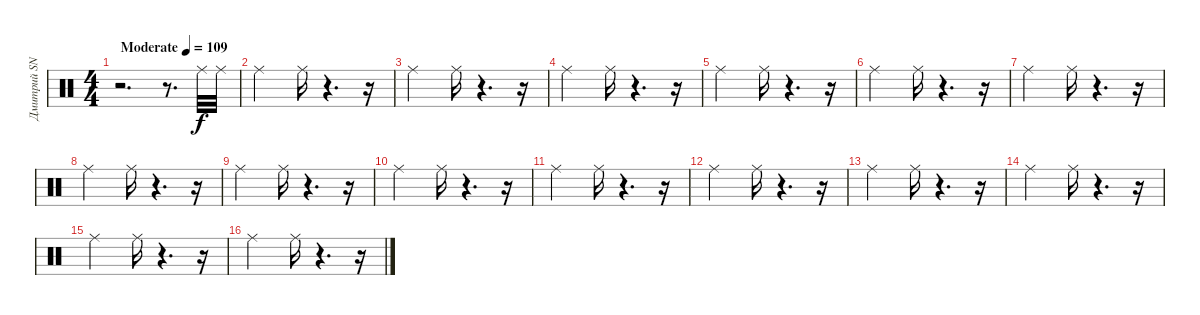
\track ("Дмитрий SNAKE Хакимов" "Дмитрий SN") {instrument percussion}
\staff {score}
\articulation defaults
\ts (4 4)
\tempo (109 "Moderate")
\clef neutral
\ks c
r.2{d dy f} r.8{d} "Ride (middle)".32 "Ride (middle)".32 |
"Ride (middle)".2 "Ride (middle)".16 r.4{d} r.16 |
"Ride (middle)".2 "Ride (middle)".16 r.4{d} r.16 |
"Ride (middle)".2 "Ride (middle)".16 r.4{d} r.16 |
"Ride (middle)".2 "Ride (middle)".16 r.4{d} r.16 |
"Ride (middle)".2 "Ride (middle)".16 r.4{d} r.16 |
"Ride (middle)".2 "Ride (middle)".16 r.4{d} r.16 |
"Ride (middle)".2 "Ride (middle)".16 r.4{d} r.16 |
"Ride (middle)".2 "Ride (middle)".16 r.4{d} r.16 |
"Ride (middle)".2 "Ride (middle)".16 r.4{d} r.16 |
"Ride (middle)".2 "Ride (middle)".16 r.4{d} r.16 |
"Ride (middle)".2 "Ride (middle)".16 r.4{d} r.16 |
"Ride (middle)".2 "Ride (middle)".16 r.4{d} r.16 |
"Ride (middle)".2 "Ride (middle)".16 r.4{d} r.16 |
"Ride (middle)".2 "Ride (middle)".16 r.4{d} r.16 |
"Ride (middle)".2 "Ride (middle)".16 r.4{d} r.16
